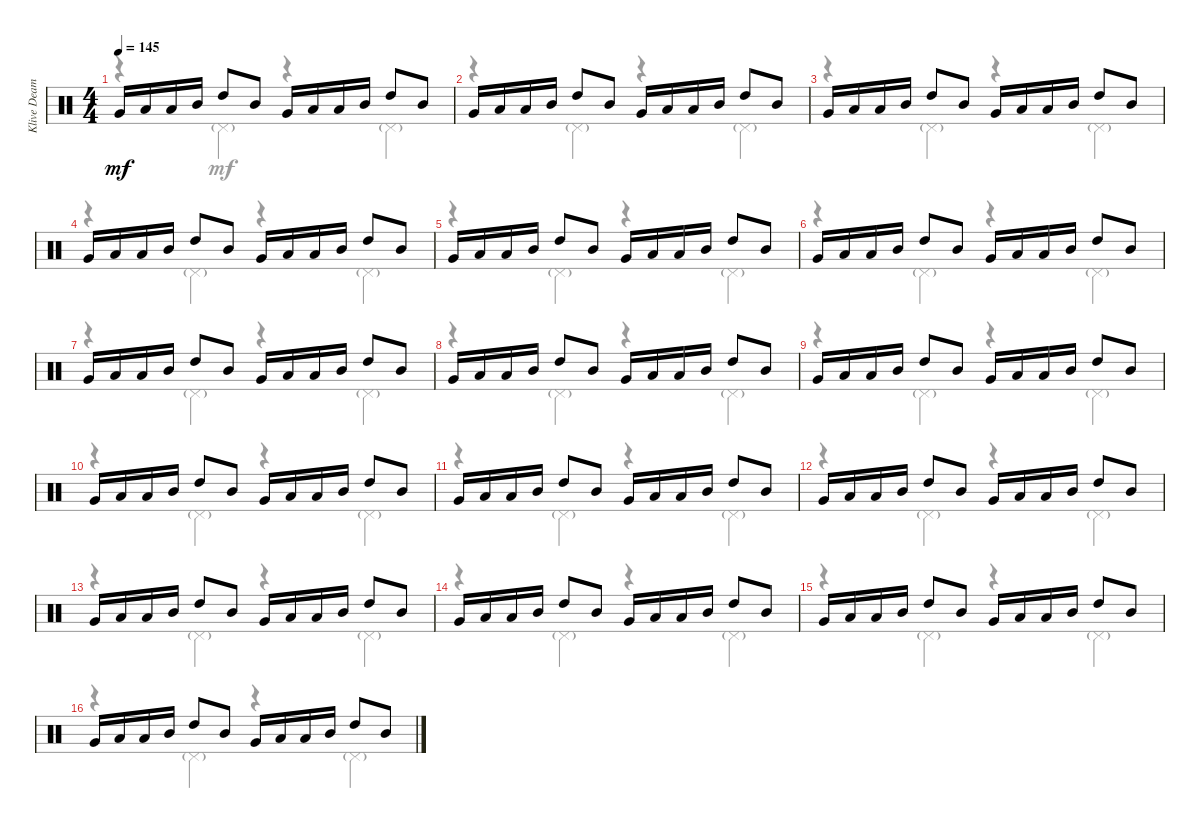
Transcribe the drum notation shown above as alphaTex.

\track ("Klive Deamer" "Klive Deam") {instrument percussion}
\staff {score}
\articulation defaults
\voice
\ts (4 4)
\tempo 145
\clef neutral
\ks c "Very Low Tom (hit)".16{dy mf} "Low Tom (hit)".16 "Low Tom (hit)".16 "Mid Tom (hit)".16 "High Tom (hit)".8 "Mid Tom (hit)".8 "Very Low Tom (hit)".16 "Low Tom (hit)".16 "Low Tom (hit)".16 "Mid Tom (hit)".16 "High Tom (hit)".8 "Mid Tom (hit)".8
|
"Very Low Tom (hit)".16 "Low Tom (hit)".16 "Low Tom (hit)".16 "Mid Tom (hit)".16 "High Tom (hit)".8 "Mid Tom (hit)".8 "Very Low Tom (hit)".16 "Low Tom (hit)".16 "Low Tom (hit)".16 "Mid Tom (hit)".16 "High Tom (hit)".8 "Mid Tom (hit)".8 |
"Very Low Tom (hit)".16 "Low Tom (hit)".16 "Low Tom (hit)".16 "Mid Tom (hit)".16 "High Tom (hit)".8 "Mid Tom (hit)".8 "Very Low Tom (hit)".16 "Low Tom (hit)".16 "Low Tom (hit)".16 "Mid Tom (hit)".16 "High Tom (hit)".8 "Mid Tom (hit)".8 |
"Very Low Tom (hit)".16 "Low Tom (hit)".16 "Low Tom (hit)".16 "Mid Tom (hit)".16 "High Tom (hit)".8 "Mid Tom (hit)".8 "Very Low Tom (hit)".16 "Low Tom (hit)".16 "Low Tom (hit)".16 "Mid Tom (hit)".16 "High Tom (hit)".8 "Mid Tom (hit)".8 |
"Very Low Tom (hit)".16 "Low Tom (hit)".16 "Low Tom (hit)".16 "Mid Tom (hit)".16 "High Tom (hit)".8 "Mid Tom (hit)".8 "Very Low Tom (hit)".16 "Low Tom (hit)".16 "Low Tom (hit)".16 "Mid Tom (hit)".16 "High Tom (hit)".8 "Mid Tom (hit)".8 |
"Very Low Tom (hit)".16 "Low Tom (hit)".16 "Low Tom (hit)".16 "Mid Tom (hit)".16 "High Tom (hit)".8 "Mid Tom (hit)".8 "Very Low Tom (hit)".16 "Low Tom (hit)".16 "Low Tom (hit)".16 "Mid Tom (hit)".16 "High Tom (hit)".8 "Mid Tom (hit)".8 |
"Very Low Tom (hit)".16 "Low Tom (hit)".16 "Low Tom (hit)".16 "Mid Tom (hit)".16 "High Tom (hit)".8 "Mid Tom (hit)".8 "Very Low Tom (hit)".16 "Low Tom (hit)".16 "Low Tom (hit)".16 "Mid Tom (hit)".16 "High Tom (hit)".8 "Mid Tom (hit)".8 |
"Very Low Tom (hit)".16 "Low Tom (hit)".16 "Low Tom (hit)".16 "Mid Tom (hit)".16 "High Tom (hit)".8 "Mid Tom (hit)".8 "Very Low Tom (hit)".16 "Low Tom (hit)".16 "Low Tom (hit)".16 "Mid Tom (hit)".16 "High Tom (hit)".8 "Mid Tom (hit)".8 |
"Very Low Tom (hit)".16 "Low Tom (hit)".16 "Low Tom (hit)".16 "Mid Tom (hit)".16 "High Tom (hit)".8 "Mid Tom (hit)".8 "Very Low Tom (hit)".16 "Low Tom (hit)".16 "Low Tom (hit)".16 "Mid Tom (hit)".16 "High Tom (hit)".8 "Mid Tom (hit)".8 |
"Very Low Tom (hit)".16 "Low Tom (hit)".16 "Low Tom (hit)".16 "Mid Tom (hit)".16 "High Tom (hit)".8 "Mid Tom (hit)".8 "Very Low Tom (hit)".16 "Low Tom (hit)".16 "Low Tom (hit)".16 "Mid Tom (hit)".16 "High Tom (hit)".8 "Mid Tom (hit)".8 |
"Very Low Tom (hit)".16 "Low Tom (hit)".16 "Low Tom (hit)".16 "Mid Tom (hit)".16 "High Tom (hit)".8 "Mid Tom (hit)".8 "Very Low Tom (hit)".16 "Low Tom (hit)".16 "Low Tom (hit)".16 "Mid Tom (hit)".16 "High Tom (hit)".8 "Mid Tom (hit)".8 |
"Very Low Tom (hit)".16 "Low Tom (hit)".16 "Low Tom (hit)".16 "Mid Tom (hit)".16 "High Tom (hit)".8 "Mid Tom (hit)".8 "Very Low Tom (hit)".16 "Low Tom (hit)".16 "Low Tom (hit)".16 "Mid Tom (hit)".16 "High Tom (hit)".8 "Mid Tom (hit)".8 |
"Very Low Tom (hit)".16 "Low Tom (hit)".16 "Low Tom (hit)".16 "Mid Tom (hit)".16 "High Tom (hit)".8 "Mid Tom (hit)".8 "Very Low Tom (hit)".16 "Low Tom (hit)".16 "Low Tom (hit)".16 "Mid Tom (hit)".16 "High Tom (hit)".8 "Mid Tom (hit)".8 |
"Very Low Tom (hit)".16 "Low Tom (hit)".16 "Low Tom (hit)".16 "Mid Tom (hit)".16 "High Tom (hit)".8 "Mid Tom (hit)".8 "Very Low Tom (hit)".16 "Low Tom (hit)".16 "Low Tom (hit)".16 "Mid Tom (hit)".16 "High Tom (hit)".8 "Mid Tom (hit)".8 |
"Very Low Tom (hit)".16 "Low Tom (hit)".16 "Low Tom (hit)".16 "Mid Tom (hit)".16 "High Tom (hit)".8 "Mid Tom (hit)".8 "Very Low Tom (hit)".16 "Low Tom (hit)".16 "Low Tom (hit)".16 "Mid Tom (hit)".16 "High Tom (hit)".8 "Mid Tom (hit)".8 |
"Very Low Tom (hit)".16 "Low Tom (hit)".16 "Low Tom (hit)".16 "Mid Tom (hit)".16 "High Tom (hit)".8 "Mid Tom (hit)".8 "Very Low Tom (hit)".16 "Low Tom (hit)".16 "Low Tom (hit)".16 "Mid Tom (hit)".16 "High Tom (hit)".8 "Mid Tom (hit)".8
\voice
\clef neutral
\ottava regular
\simile none
\ks c
r.4{dy mf} "Pedal Hi-Hat (hit)"{g}.4 r.4 "Pedal Hi-Hat (hit)"{g}.4 |
r.4 "Pedal Hi-Hat (hit)"{g}.4 r.4 "Pedal Hi-Hat (hit)"{g}.4 |
r.4 "Pedal Hi-Hat (hit)"{g}.4 r.4 "Pedal Hi-Hat (hit)"{g}.4 |
r.4 "Pedal Hi-Hat (hit)"{g}.4 r.4 "Pedal Hi-Hat (hit)"{g}.4 |
r.4 "Pedal Hi-Hat (hit)"{g}.4 r.4 "Pedal Hi-Hat (hit)"{g}.4 |
r.4 "Pedal Hi-Hat (hit)"{g}.4 r.4 "Pedal Hi-Hat (hit)"{g}.4 |
r.4 "Pedal Hi-Hat (hit)"{g}.4 r.4 "Pedal Hi-Hat (hit)"{g}.4 |
r.4 "Pedal Hi-Hat (hit)"{g}.4 r.4 "Pedal Hi-Hat (hit)"{g}.4 |
r.4 "Pedal Hi-Hat (hit)"{g}.4 r.4 "Pedal Hi-Hat (hit)"{g}.4 |
r.4 "Pedal Hi-Hat (hit)"{g}.4 r.4 "Pedal Hi-Hat (hit)"{g}.4 |
r.4 "Pedal Hi-Hat (hit)"{g}.4 r.4 "Pedal Hi-Hat (hit)"{g}.4 |
r.4 "Pedal Hi-Hat (hit)"{g}.4 r.4 "Pedal Hi-Hat (hit)"{g}.4 |
r.4 "Pedal Hi-Hat (hit)"{g}.4 r.4 "Pedal Hi-Hat (hit)"{g}.4 |
r.4 "Pedal Hi-Hat (hit)"{g}.4 r.4 "Pedal Hi-Hat (hit)"{g}.4 |
r.4 "Pedal Hi-Hat (hit)"{g}.4 r.4 "Pedal Hi-Hat (hit)"{g}.4 |
r.4 "Pedal Hi-Hat (hit)"{g}.4 r.4 "Pedal Hi-Hat (hit)"{g}.4
